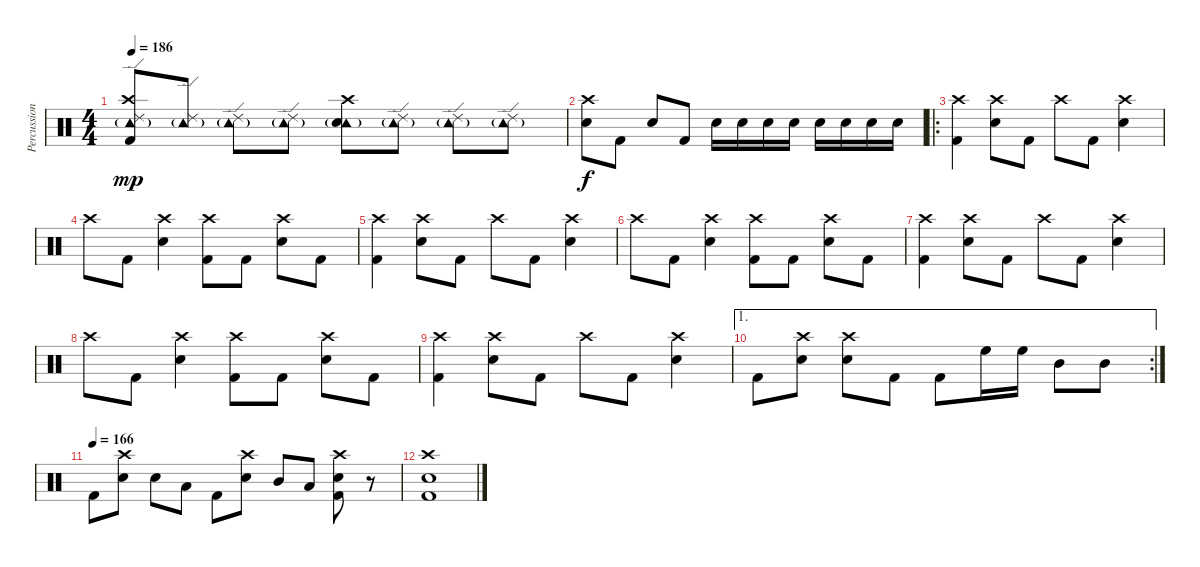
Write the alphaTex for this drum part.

\track ("Percussion" "Percussion") {instrument percussion}
\staff {score}
\articulation defaults
\ts (4 4)
\tempo 186
\clef neutral
\ks c
("Ride (edge) 2" "Tambourine (hit)"{g} "Crash high (hit)" "Kick (hit) 2").8{dy mp} ("Ride (edge) 2" "Tambourine (hit)"{g}).8 ("Ride (edge) 2" "Tambourine (hit)"{g}).8 ("Ride (edge) 2" "Tambourine (hit)"{g}).8 ("Crash high (hit)" "Tambourine (hit)"{g} "Electric Snare (hit)").8 ("Ride (edge) 2" "Tambourine (hit)"{g}).8 ("Ride (edge) 2" "Tambourine (hit)"{g}).8 ("Ride (edge) 2" "Tambourine (hit)"{g}).8 |
("Crash high (hit)" "Electric Snare (hit)").8{dy f} "Kick (hit) 2".8 "Electric Snare (hit)".8 "Kick (hit) 2".8 "Electric Snare (hit)".16 "Electric Snare (hit)".16 "Electric Snare (hit)".16 "Electric Snare (hit)".16 "Electric Snare (hit)".16 "Electric Snare (hit)".16 "Electric Snare (hit)".16 "Electric Snare (hit)".16 |
\ro
("Crash high (hit)" "Kick (hit) 2").4 ("Crash high (hit)" "Electric Snare (hit)").8 "Kick (hit) 2".8 "Crash high (hit)".8 "Kick (hit) 2".8 ("Crash high (hit)" "Electric Snare (hit)").4 |
"Crash high (hit)".8 "Kick (hit) 2".8 ("Crash high (hit)" "Electric Snare (hit)").4 ("Crash high (hit)" "Kick (hit) 2").8 "Kick (hit) 2".8 ("Crash high (hit)" "Electric Snare (hit)").8 "Kick (hit) 2".8 |
("Crash high (hit)" "Kick (hit) 2").4 ("Crash high (hit)" "Electric Snare (hit)").8 "Kick (hit) 2".8 "Crash high (hit)".8 "Kick (hit) 2".8 ("Crash high (hit)" "Electric Snare (hit)").4 |
"Crash high (hit)".8 "Kick (hit) 2".8 ("Crash high (hit)" "Electric Snare (hit)").4 ("Crash high (hit)" "Kick (hit) 2").8 "Kick (hit) 2".8 ("Crash high (hit)" "Electric Snare (hit)").8 "Kick (hit) 2".8 |
("Crash high (hit)" "Kick (hit) 2").4 ("Crash high (hit)" "Electric Snare (hit)").8 "Kick (hit) 2".8 "Crash high (hit)".8 "Kick (hit) 2".8 ("Crash high (hit)" "Electric Snare (hit)").4 |
"Crash high (hit)".8 "Kick (hit) 2".8 ("Crash high (hit)" "Electric Snare (hit)").4 ("Crash high (hit)" "Kick (hit) 2").8 "Kick (hit) 2".8 ("Crash high (hit)" "Electric Snare (hit)").8 "Kick (hit) 2".8 |
("Crash high (hit)" "Kick (hit) 2").4 ("Crash high (hit)" "Electric Snare (hit)").8 "Kick (hit) 2".8 "Crash high (hit)".8 "Kick (hit) 2".8 ("Crash high (hit)" "Electric Snare (hit)").4 |
\ae 1
\rc 2 "Kick (hit) 2".8
("Crash high (hit)" "Electric Snare (hit)").8 ("Crash high (hit)" "Electric Snare (hit)").8 "Kick (hit) 2".8 "Kick (hit) 2".8 "High Floor Tom (hit)".16 "High Floor Tom (hit)".16 "Mid Tom (hit)".8 "Mid Tom (hit)".8 |
\tempo (166)
"Kick (hit) 2".8 ("Crash high (hit)" "Electric Snare (hit)").8 "Electric Snare (hit)".8 "Low Tom (hit)".8 "Kick (hit) 2".8 ("Crash high (hit)" "Electric Snare (hit)").8 "Mid Tom (hit)".8 "Low Tom (hit)".8 ("Crash high (hit)" "Electric Snare (hit)" "Kick (hit) 2").8 r.8 |
("Crash high (hit)" "Electric Snare (hit)" "Kick (hit) 2").1
